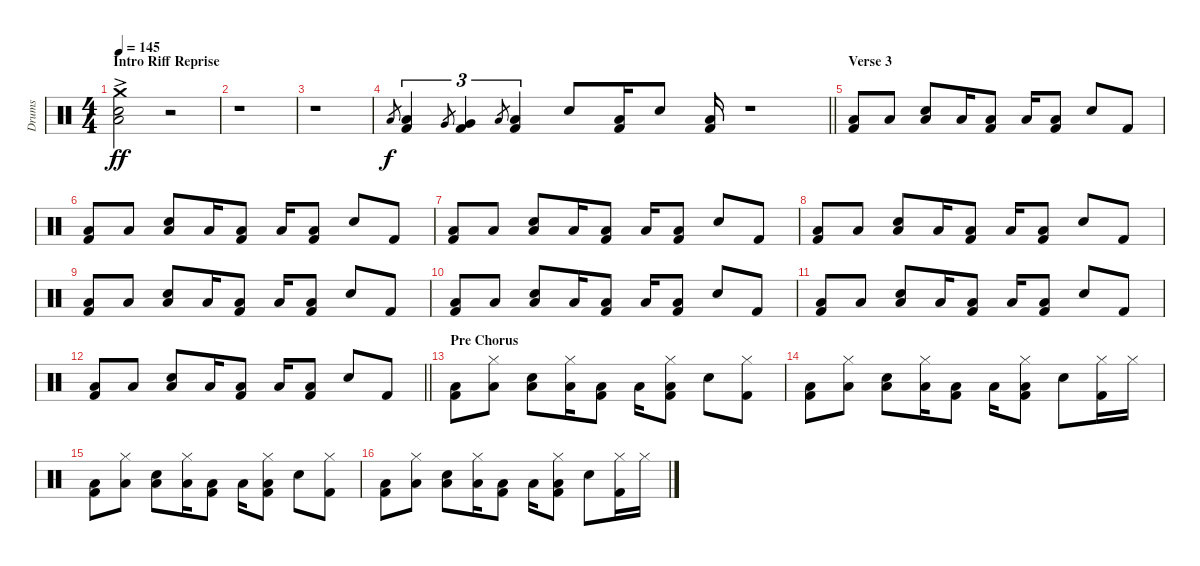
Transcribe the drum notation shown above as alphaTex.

\track ("Drums" "Drums") {instrument percussion}
\staff {score}
\articulation defaults
\ts (4 4)
\section ("" "Intro Riff Reprise")
\tempo 145
\clef neutral
\ks c
("Crash medium (hit)"{ac} "Low Floor Tom (hit)" "Snare (hit) 2").2{dy ff} r.2 |
r.1 |
r.1 |
\barLineRight lightlight "Low Tom (hit)".8{gr dy f}
("Low Tom (hit)" "Kick (hit) 2").4{tu (3 2)} "Very Low Tom (hit)".8{gr} ("Very Low Tom (hit)" "Kick (hit) 2").4{tu (3 2)} "Low Floor Tom (hit)".8{gr} ("Low Floor Tom (hit)" "Kick (hit) 2").4{tu (3 2)} "Snare (hit) 2".8 ("Kick (hit) 2" "Low Floor Tom (hit)").16 "Snare (hit) 2".8 ("Kick (hit) 2" "Low Floor Tom (hit)").16 r.1 |
\section ("" "Verse 3")
("Low Tom (hit)" "Kick (hit) 2").8 "Low Tom (hit)".8 ("Low Tom (hit)" "Snare (hit) 2").8 "Low Floor Tom (hit)".16 ("Low Floor Tom (hit)" "Kick (hit) 2").8 "Low Floor Tom (hit)".16 ("Low Floor Tom (hit)" "Kick (hit) 2").8 "Snare (hit) 2".8 "Kick (hit) 2".8 |
("Low Tom (hit)" "Kick (hit) 2").8 "Low Tom (hit)".8 ("Low Tom (hit)" "Snare (hit) 2").8 "Low Floor Tom (hit)".16 ("Low Floor Tom (hit)" "Kick (hit) 2").8 "Low Floor Tom (hit)".16 ("Low Floor Tom (hit)" "Kick (hit) 2").8 "Snare (hit) 2".8 "Kick (hit) 2".8 |
("Low Tom (hit)" "Kick (hit) 2").8 "Low Tom (hit)".8 ("Low Tom (hit)" "Snare (hit) 2").8 "Low Floor Tom (hit)".16 ("Low Floor Tom (hit)" "Kick (hit) 2").8 "Low Floor Tom (hit)".16 ("Low Floor Tom (hit)" "Kick (hit) 2").8 "Snare (hit) 2".8 "Kick (hit) 2".8 |
("Low Tom (hit)" "Kick (hit) 2").8 "Low Tom (hit)".8 ("Low Tom (hit)" "Snare (hit) 2").8 "Low Floor Tom (hit)".16 ("Low Floor Tom (hit)" "Kick (hit) 2").8 "Low Floor Tom (hit)".16 ("Low Floor Tom (hit)" "Kick (hit) 2").8 "Snare (hit) 2".8 "Kick (hit) 2".8 |
("Low Tom (hit)" "Kick (hit) 2").8 "Low Tom (hit)".8 ("Low Tom (hit)" "Snare (hit) 2").8 "Low Floor Tom (hit)".16 ("Low Floor Tom (hit)" "Kick (hit) 2").8 "Low Floor Tom (hit)".16 ("Low Floor Tom (hit)" "Kick (hit) 2").8 "Snare (hit) 2".8 "Kick (hit) 2".8 |
("Low Tom (hit)" "Kick (hit) 2").8 "Low Tom (hit)".8 ("Low Tom (hit)" "Snare (hit) 2").8 "Low Floor Tom (hit)".16 ("Low Floor Tom (hit)" "Kick (hit) 2").8 "Low Floor Tom (hit)".16 ("Low Floor Tom (hit)" "Kick (hit) 2").8 "Snare (hit) 2".8 "Kick (hit) 2".8 |
("Low Tom (hit)" "Kick (hit) 2").8 "Low Tom (hit)".8 ("Low Tom (hit)" "Snare (hit) 2").8 "Low Floor Tom (hit)".16 ("Low Floor Tom (hit)" "Kick (hit) 2").8 "Low Floor Tom (hit)".16 ("Low Floor Tom (hit)" "Kick (hit) 2").8 "Snare (hit) 2".8 "Kick (hit) 2".8 |
\barLineRight lightlight
("Low Tom (hit)" "Kick (hit) 2").8 "Low Tom (hit)".8 ("Low Tom (hit)" "Snare (hit) 2").8 "Low Floor Tom (hit)".16 ("Low Floor Tom (hit)" "Kick (hit) 2").8 "Low Floor Tom (hit)".16 ("Low Floor Tom (hit)" "Kick (hit) 2").8 "Snare (hit) 2".8 "Kick (hit) 2".8 |
\section ("" "Pre Chorus")
("Low Tom (hit)" "Kick (hit) 2").8 ("Low Tom (hit)" "Hi-Hat (closed)").8 ("Low Tom (hit)" "Snare (hit) 2").8 ("Low Floor Tom (hit)" "Hi-Hat (closed)").16 ("Low Floor Tom (hit)" "Kick (hit) 2").8 "Low Floor Tom (hit)".16 ("Low Floor Tom (hit)" "Kick (hit) 2" "Hi-Hat (closed)").8 "Snare (hit) 2".8 ("Kick (hit) 2" "Hi-Hat (closed)").8 |
("Low Tom (hit)" "Kick (hit) 2").8 ("Low Tom (hit)" "Hi-Hat (closed)").8 ("Low Tom (hit)" "Snare (hit) 2").8 ("Low Floor Tom (hit)" "Hi-Hat (closed)").16 ("Low Floor Tom (hit)" "Kick (hit) 2").8 "Low Floor Tom (hit)".16 ("Low Floor Tom (hit)" "Kick (hit) 2" "Hi-Hat (closed)").8 "Snare (hit) 2".8 ("Kick (hit) 2" "Hi-Hat (closed)").16 "Hi-Hat (closed)".16 |
("Low Tom (hit)" "Kick (hit) 2").8 ("Low Tom (hit)" "Hi-Hat (closed)").8 ("Low Tom (hit)" "Snare (hit) 2").8 ("Low Floor Tom (hit)" "Hi-Hat (closed)").16 ("Low Floor Tom (hit)" "Kick (hit) 2").8 "Low Floor Tom (hit)".16 ("Low Floor Tom (hit)" "Kick (hit) 2" "Hi-Hat (closed)").8 "Snare (hit) 2".8 ("Kick (hit) 2" "Hi-Hat (closed)").8 |
("Low Tom (hit)" "Kick (hit) 2").8 ("Low Tom (hit)" "Hi-Hat (closed)").8 ("Low Tom (hit)" "Snare (hit) 2").8 ("Low Floor Tom (hit)" "Hi-Hat (closed)").16 ("Low Floor Tom (hit)" "Kick (hit) 2").8 "Low Floor Tom (hit)".16 ("Low Floor Tom (hit)" "Kick (hit) 2" "Hi-Hat (closed)").8 "Snare (hit) 2".8 ("Kick (hit) 2" "Hi-Hat (closed)").16 "Hi-Hat (closed)".16
